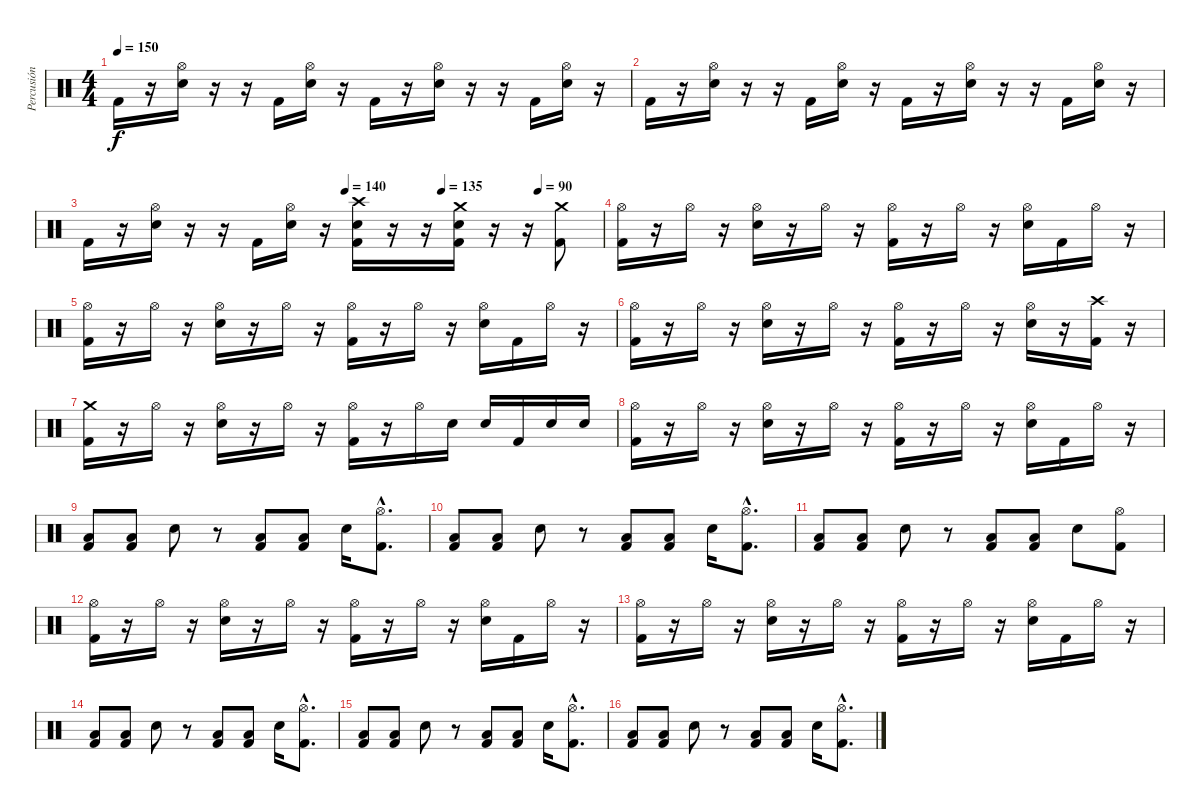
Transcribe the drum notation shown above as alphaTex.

\track ("Percusión" "Percusión") {instrument percussion}
\staff {score}
\articulation defaults
\ts (4 4)
\tempo 150
\clef neutral
\ks c "Kick (hit) 2".16{dy f}
r.16 ("Electric Snare (hit)" "Hi-Hat (open)").16 r.16 r.16 "Kick (hit) 2".16 ("Electric Snare (hit)" "Hi-Hat (open)").16 r.16 "Kick (hit) 2".16 r.16 ("Electric Snare (hit)" "Hi-Hat (open)").16 r.16 r.16 "Kick (hit) 2".16 ("Electric Snare (hit)" "Hi-Hat (open)").16 r.16 |
"Kick (hit) 2".16 r.16 ("Electric Snare (hit)" "Hi-Hat (open)").16 r.16 r.16 "Kick (hit) 2".16 ("Electric Snare (hit)" "Hi-Hat (open)").16 r.16 "Kick (hit) 2".16 r.16 ("Electric Snare (hit)" "Hi-Hat (open)").16 r.16 r.16 "Kick (hit) 2".16 ("Electric Snare (hit)" "Hi-Hat (open)").16 r.16 |
\tempo (140 0.5)
\tempo (135 0.6875)
\tempo (90 0.875)
"Kick (hit) 2".16 r.16 ("Electric Snare (hit)" "Hi-Hat (open)").16 r.16 r.16 "Kick (hit) 2".16 ("Electric Snare (hit)" "Hi-Hat (open)").16 r.16 ("Kick (hit) 2" "Electric Snare (hit)" "Crash high (hit)").16 r.16 r.16 ("Kick (hit) 2" "Electric Snare (hit)" "Crash medium (hit)").16 r.16 r.16 ("Kick (hit) 2" "Crash medium (hit)").8 |
("Kick (hit) 2" "Hi-Hat (open)").16 r.16 "Hi-Hat (open)".16 r.16 ("Electric Snare (hit)" "Hi-Hat (open)").16 r.16 "Hi-Hat (open)".16 r.16 ("Kick (hit) 2" "Hi-Hat (open)").16 r.16 "Hi-Hat (open)".16 r.16 ("Electric Snare (hit)" "Hi-Hat (open)").16 "Kick (hit) 2".16 "Hi-Hat (open)".16 r.16 |
("Kick (hit) 2" "Hi-Hat (open)").16 r.16 "Hi-Hat (open)".16 r.16 ("Electric Snare (hit)" "Hi-Hat (open)").16 r.16 "Hi-Hat (open)".16 r.16 ("Kick (hit) 2" "Hi-Hat (open)").16 r.16 "Hi-Hat (open)".16 r.16 ("Electric Snare (hit)" "Hi-Hat (open)").16 "Kick (hit) 2".16 "Hi-Hat (open)".16 r.16 |
("Kick (hit) 2" "Hi-Hat (open)").16 r.16 "Hi-Hat (open)".16 r.16 ("Electric Snare (hit)" "Hi-Hat (open)").16 r.16 "Hi-Hat (open)".16 r.16 ("Kick (hit) 2" "Hi-Hat (open)").16 r.16 "Hi-Hat (open)".16 r.16 ("Electric Snare (hit)" "Hi-Hat (open)").16 r.16 ("Kick (hit) 2" "Crash high (hit)").16 r.16 |
("Kick (hit) 2" "Crash medium (hit)").16 r.16 "Hi-Hat (open)".16 r.16 ("Electric Snare (hit)" "Hi-Hat (open)").16 r.16 "Hi-Hat (open)".16 r.16 ("Kick (hit) 2" "Hi-Hat (open)").16 r.16 "Hi-Hat (open)".16 "Electric Snare (hit)".16 "Electric Snare (hit)".16 "Kick (hit) 2".16 "Electric Snare (hit)".16 "Electric Snare (hit)".16 |
("Kick (hit) 2" "Hi-Hat (open)").16 r.16 "Hi-Hat (open)".16 r.16 ("Electric Snare (hit)" "Hi-Hat (open)").16 r.16 "Hi-Hat (open)".16 r.16 ("Kick (hit) 2" "Hi-Hat (open)").16 r.16 "Hi-Hat (open)".16 r.16 ("Electric Snare (hit)" "Hi-Hat (open)").16 "Kick (hit) 2".16 "Hi-Hat (open)".16 r.16 |
("Low Floor Tom (hit)" "Kick (hit) 2").8 ("Low Floor Tom (hit)" "Kick (hit) 2").8 "Electric Snare (hit)".8 r.8 ("Low Floor Tom (hit)" "Kick (hit) 2").8 ("Low Floor Tom (hit)" "Kick (hit) 2").8 "Electric Snare (hit)".16 ("Kick (hit) 2"{hac} "Hi-Hat (open)"{hac}).8{d} |
("Low Floor Tom (hit)" "Kick (hit) 2").8 ("Low Floor Tom (hit)" "Kick (hit) 2").8 "Electric Snare (hit)".8 r.8 ("Low Floor Tom (hit)" "Kick (hit) 2").8 ("Low Floor Tom (hit)" "Kick (hit) 2").8 "Electric Snare (hit)".16 ("Kick (hit) 2"{hac} "Hi-Hat (open)"{hac}).8{d} |
("Low Floor Tom (hit)" "Kick (hit) 2").8 ("Low Floor Tom (hit)" "Kick (hit) 2").8 "Electric Snare (hit)".8 r.8 ("Low Floor Tom (hit)" "Kick (hit) 2").8 ("Low Floor Tom (hit)" "Kick (hit) 2").8 "Electric Snare (hit)".8 ("Kick (hit) 2" "Hi-Hat (open)").8 |
("Kick (hit) 2" "Hi-Hat (open)").16 r.16 "Hi-Hat (open)".16 r.16 ("Electric Snare (hit)" "Hi-Hat (open)").16 r.16 "Hi-Hat (open)".16 r.16 ("Kick (hit) 2" "Hi-Hat (open)").16 r.16 "Hi-Hat (open)".16 r.16 ("Electric Snare (hit)" "Hi-Hat (open)").16 "Kick (hit) 2".16 "Hi-Hat (open)".16 r.16 |
("Kick (hit) 2" "Hi-Hat (open)").16 r.16 "Hi-Hat (open)".16 r.16 ("Electric Snare (hit)" "Hi-Hat (open)").16 r.16 "Hi-Hat (open)".16 r.16 ("Kick (hit) 2" "Hi-Hat (open)").16 r.16 "Hi-Hat (open)".16 r.16 ("Electric Snare (hit)" "Hi-Hat (open)").16 "Kick (hit) 2".16 "Hi-Hat (open)".16 r.16 |
("Low Floor Tom (hit)" "Kick (hit) 2").8 ("Low Floor Tom (hit)" "Kick (hit) 2").8 "Electric Snare (hit)".8 r.8 ("Low Floor Tom (hit)" "Kick (hit) 2").8 ("Low Floor Tom (hit)" "Kick (hit) 2").8 "Electric Snare (hit)".16 ("Kick (hit) 2"{hac} "Hi-Hat (open)"{hac}).8{d} |
("Low Floor Tom (hit)" "Kick (hit) 2").8 ("Low Floor Tom (hit)" "Kick (hit) 2").8 "Electric Snare (hit)".8 r.8 ("Low Floor Tom (hit)" "Kick (hit) 2").8 ("Low Floor Tom (hit)" "Kick (hit) 2").8 "Electric Snare (hit)".16 ("Kick (hit) 2"{hac} "Hi-Hat (open)"{hac}).8{d} |
("Low Floor Tom (hit)" "Kick (hit) 2").8 ("Low Floor Tom (hit)" "Kick (hit) 2").8 "Electric Snare (hit)".8 r.8 ("Low Floor Tom (hit)" "Kick (hit) 2").8 ("Low Floor Tom (hit)" "Kick (hit) 2").8 "Electric Snare (hit)".16 ("Kick (hit) 2"{hac} "Hi-Hat (open)"{hac}).8{d}
